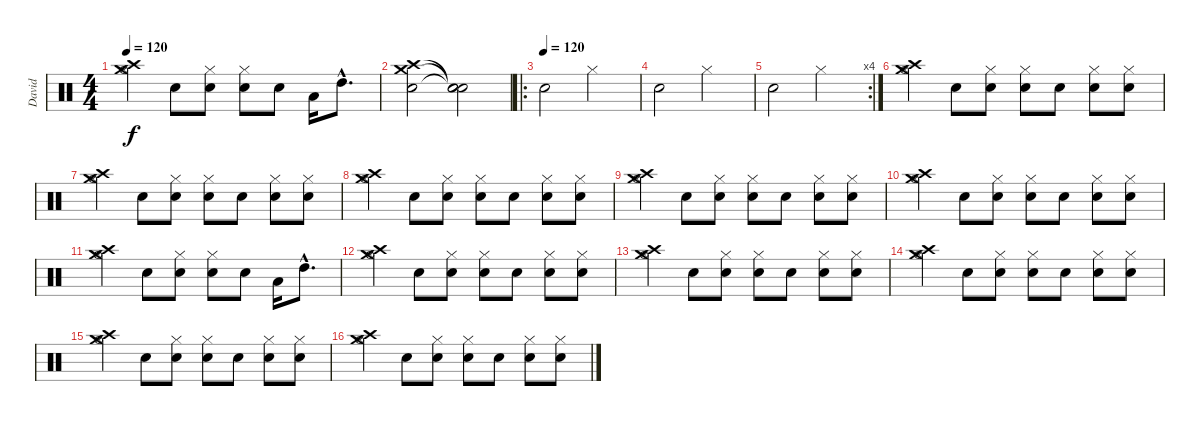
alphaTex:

\track ("David " "David ") {instrument percussion}
\staff {score}
\articulation defaults
\ts (4 4)
\tempo 120
\clef neutral
\ks c
("Crash medium (hit)" "Hi-Hat (open)" "Crash high (hit)").4{dy f} "Snare (hit) 2".8 ("Electric Snare (hit)" "Hi-Hat (closed)").8 ("Electric Snare (hit)" "Hi-Hat (closed)").8 "Snare (hit) 2".8 "Low Tom (hit)".16 "High Tom (hit)"{hac}.8{d} |
("Electric Snare (hit)" "Crash high (hit)" "Crash medium (hit)").2 ("Snare (hit)"{t} "Snare (hit)"{t} "Snare (hit)"{t}).2 |
\ro
\tempo (120)
"Snare (hit) 2".2 "Hi-Hat (closed)".2 |
"Snare (hit) 2".2 "Hi-Hat (closed)".2 |
\rc 4 "Snare (hit) 2".2 "Hi-Hat (closed)".2
|
("Crash high (hit)" "Crash medium (hit)" "Hi-Hat (open)").4 "Snare (hit) 2".8 ("Electric Snare (hit)" "Hi-Hat (closed)").8 ("Electric Snare (hit)" "Hi-Hat (closed)").8 "Snare (hit) 2".8 ("Electric Snare (hit)" "Hi-Hat (closed)").8 ("Electric Snare (hit)" "Hi-Hat (closed)").8 |
("Crash medium (hit)" "Hi-Hat (open)" "Crash high (hit)").4 "Snare (hit) 2".8 ("Electric Snare (hit)" "Hi-Hat (closed)").8 ("Electric Snare (hit)" "Hi-Hat (closed)").8 "Snare (hit) 2".8 ("Electric Snare (hit)" "Hi-Hat (closed)").8 ("Electric Snare (hit)" "Hi-Hat (closed)").8 |
("Crash high (hit)" "Crash medium (hit)" "Hi-Hat (open)").4 "Snare (hit) 2".8 ("Electric Snare (hit)" "Hi-Hat (closed)").8 ("Electric Snare (hit)" "Hi-Hat (closed)").8 "Snare (hit) 2".8 ("Electric Snare (hit)" "Hi-Hat (closed)").8 ("Electric Snare (hit)" "Hi-Hat (closed)").8 |
("Crash medium (hit)" "Hi-Hat (open)" "Crash high (hit)").4 "Snare (hit) 2".8 ("Electric Snare (hit)" "Hi-Hat (closed)").8 ("Electric Snare (hit)" "Hi-Hat (closed)").8 "Snare (hit) 2".8 ("Electric Snare (hit)" "Hi-Hat (closed)").8 ("Electric Snare (hit)" "Hi-Hat (closed)").8 |
("Crash high (hit)" "Crash medium (hit)" "Hi-Hat (open)").4 "Snare (hit) 2".8 ("Electric Snare (hit)" "Hi-Hat (closed)").8 ("Electric Snare (hit)" "Hi-Hat (closed)").8 "Snare (hit) 2".8 ("Electric Snare (hit)" "Hi-Hat (closed)").8 ("Electric Snare (hit)" "Hi-Hat (closed)").8 |
("Crash medium (hit)" "Hi-Hat (open)" "Crash high (hit)").4 "Snare (hit) 2".8 ("Electric Snare (hit)" "Hi-Hat (closed)").8 ("Electric Snare (hit)" "Hi-Hat (closed)").8 "Snare (hit) 2".8 "Low Tom (hit)".16 "High Tom (hit)"{hac}.8{d} |
("Crash high (hit)" "Crash medium (hit)" "Hi-Hat (open)").4 "Snare (hit) 2".8 ("Electric Snare (hit)" "Hi-Hat (closed)").8 ("Electric Snare (hit)" "Hi-Hat (closed)").8 "Snare (hit) 2".8 ("Electric Snare (hit)" "Hi-Hat (closed)").8 ("Electric Snare (hit)" "Hi-Hat (closed)").8 |
("Crash medium (hit)" "Hi-Hat (open)" "Crash high (hit)").4 "Snare (hit) 2".8 ("Electric Snare (hit)" "Hi-Hat (closed)").8 ("Electric Snare (hit)" "Hi-Hat (closed)").8 "Snare (hit) 2".8 ("Electric Snare (hit)" "Hi-Hat (closed)").8 ("Electric Snare (hit)" "Hi-Hat (closed)").8 |
("Crash high (hit)" "Crash medium (hit)" "Hi-Hat (open)").4 "Snare (hit) 2".8 ("Electric Snare (hit)" "Hi-Hat (closed)").8 ("Electric Snare (hit)" "Hi-Hat (closed)").8 "Snare (hit) 2".8 ("Electric Snare (hit)" "Hi-Hat (closed)").8 ("Electric Snare (hit)" "Hi-Hat (closed)").8 |
("Crash medium (hit)" "Hi-Hat (open)" "Crash high (hit)").4 "Snare (hit) 2".8 ("Electric Snare (hit)" "Hi-Hat (closed)").8 ("Electric Snare (hit)" "Hi-Hat (closed)").8 "Snare (hit) 2".8 ("Electric Snare (hit)" "Hi-Hat (closed)").8 ("Electric Snare (hit)" "Hi-Hat (closed)").8 |
("Crash high (hit)" "Crash medium (hit)" "Hi-Hat (open)").4 "Snare (hit) 2".8 ("Electric Snare (hit)" "Hi-Hat (closed)").8 ("Electric Snare (hit)" "Hi-Hat (closed)").8 "Snare (hit) 2".8 ("Electric Snare (hit)" "Hi-Hat (closed)").8 ("Electric Snare (hit)" "Hi-Hat (closed)").8
